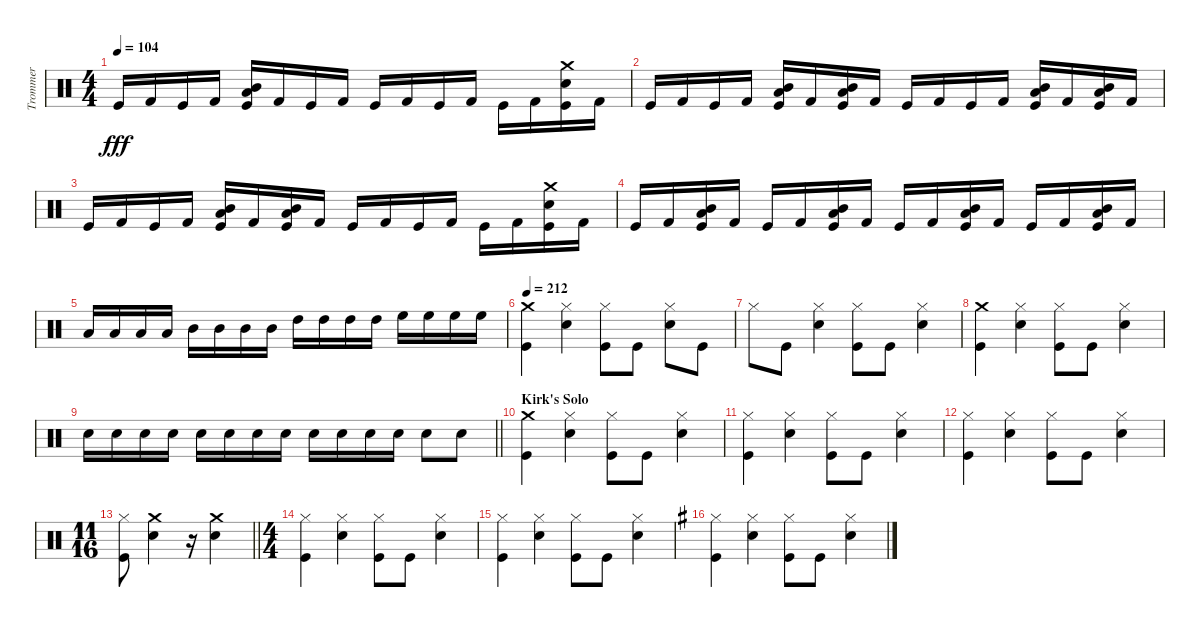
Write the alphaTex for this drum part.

\track ("Trommer" "Trommer") {instrument percussion}
\staff {score}
\articulation defaults
\ts (4 4)
\tempo 104
\clef neutral
\ks c "Kick (hit)".16{dy fff} "Kick (hit) 2".16 "Kick (hit)".16 "Kick (hit) 2".16
("Kick (hit)" "Mid Tom (hit)" "Low Tom (hit)").16 "Kick (hit) 2".16 "Kick (hit)".16 "Kick (hit) 2".16 "Kick (hit)".16 "Kick (hit) 2".16 "Kick (hit)".16 "Kick (hit) 2".16 "Kick (hit)".16 "Kick (hit) 2".16 ("Snare (hit) 2" "Kick (hit)" "Crash medium (hit)").16 "Kick (hit) 2".16 |
"Kick (hit)".16 "Kick (hit) 2".16 "Kick (hit)".16 "Kick (hit) 2".16 ("Mid Tom (hit)" "Low Tom (hit)" "Kick (hit)").16 "Kick (hit) 2".16 ("Kick (hit)" "Mid Tom (hit)" "Low Tom (hit)").16 "Kick (hit) 2".16 "Kick (hit)".16 "Kick (hit) 2".16 "Kick (hit)".16 "Kick (hit) 2".16 ("Kick (hit)" "Mid Tom (hit)" "Low Tom (hit)").16 "Kick (hit) 2".16 ("Low Tom (hit)" "Mid Tom (hit)" "Kick (hit)").16 "Kick (hit) 2".16 |
"Kick (hit)".16 "Kick (hit) 2".16 "Kick (hit)".16 "Kick (hit) 2".16 ("Kick (hit)" "Mid Tom (hit)" "Low Tom (hit)").16 "Kick (hit) 2".16 ("Kick (hit)" "Low Tom (hit)" "Mid Tom (hit)").16 "Kick (hit) 2".16 "Kick (hit)".16 "Kick (hit) 2".16 "Kick (hit)".16 "Kick (hit) 2".16 "Kick (hit)".16 "Kick (hit) 2".16 ("Kick (hit)" "Crash medium (hit)" "Snare (hit) 2").16 "Kick (hit) 2".16 |
"Kick (hit)".16 "Kick (hit) 2".16 ("Kick (hit)" "Mid Tom (hit)" "Low Tom (hit)").16 "Kick (hit) 2".16 "Kick (hit)".16 "Kick (hit) 2".16 ("Kick (hit)" "Low Tom (hit)" "Mid Tom (hit)").16 "Kick (hit) 2".16 "Kick (hit)".16 "Kick (hit) 2".16 ("Low Tom (hit)" "Mid Tom (hit)" "Kick (hit)").16 "Kick (hit) 2".16 "Kick (hit)".16 "Kick (hit) 2".16 ("Mid Tom (hit)" "Low Tom (hit)" "Kick (hit)").16 "Kick (hit) 2".16 |
"Low Tom (hit)".16 "Low Tom (hit)".16 "Low Tom (hit)".16 "Low Tom (hit)".16 "Mid Tom (hit)".16 "Mid Tom (hit)".16 "Mid Tom (hit)".16 "Mid Tom (hit)".16 "High Tom (hit)".16 "High Tom (hit)".16 "High Tom (hit)".16 "High Tom (hit)".16 "High Floor Tom (hit)".16 "High Floor Tom (hit)".16 "High Floor Tom (hit)".16 "High Floor Tom (hit)".16 |
\tempo 212
("Kick (hit)" "Crash medium (hit)").4 ("Snare (hit) 2" "Hi-Hat (closed)").4 ("Kick (hit)" "Hi-Hat (closed)").8 "Kick (hit)".8 ("Hi-Hat (closed)" "Snare (hit) 2").8 "Kick (hit)".8 |
"Hi-Hat (closed)".8 "Kick (hit)".8 ("Snare (hit) 2" "Hi-Hat (closed)").4 ("Hi-Hat (closed)" "Kick (hit)").8 "Kick (hit)".8 ("Snare (hit) 2" "Hi-Hat (closed)").4 |
("Crash medium (hit)" "Kick (hit)").4 ("Snare (hit) 2" "Hi-Hat (closed)").4 ("Kick (hit)" "Hi-Hat (closed)").8 "Kick (hit)".8 ("Snare (hit) 2" "Hi-Hat (closed)").4 |
\barLineRight lightlight "Snare (hit) 2".16 "Snare (hit) 2".16 "Snare (hit) 2".16 "Snare (hit) 2".16 "Snare (hit) 2".16 "Snare (hit) 2".16 "Snare (hit) 2".16 "Snare (hit) 2".16 "Snare (hit) 2".16 "Snare (hit) 2".16 "Snare (hit) 2".16 "Snare (hit) 2".16 "Snare (hit) 2".8 "Snare (hit) 2".8
|
\section ("" "Kirk's Solo")
("Kick (hit)" "Crash medium (hit)").4 ("Snare (hit) 2" "Hi-Hat (closed)").4 ("Hi-Hat (closed)" "Kick (hit)").8 "Kick (hit)".8 ("Snare (hit) 2" "Hi-Hat (closed)").4 |
("Hi-Hat (closed)" "Kick (hit)").4 ("Snare (hit) 2" "Hi-Hat (closed)").4 ("Kick (hit)" "Hi-Hat (closed)").8 "Kick (hit)".8 ("Snare (hit) 2" "Hi-Hat (closed)").4 |
("Kick (hit)" "Hi-Hat (closed)").4 ("Snare (hit) 2" "Hi-Hat (closed)").4 ("Kick (hit)" "Hi-Hat (closed)").8 "Kick (hit)".8 ("Snare (hit) 2" "Hi-Hat (closed)").4 |
\ts (11 16)
\barLineRight lightlight
("Hi-Hat (closed)" "Kick (hit)").8 ("Snare (hit) 2" "Crash medium (hit)").4 r.16 ("Crash medium (hit)" "Snare (hit) 2").4 |
\ts (4 4)
("Hi-Hat (closed)" "Kick (hit)").4 ("Snare (hit) 2" "Hi-Hat (closed)").4 ("Kick (hit)" "Hi-Hat (closed)").8 "Kick (hit)".8 ("Snare (hit) 2" "Hi-Hat (closed)").4 |
("Kick (hit)" "Hi-Hat (closed)").4 ("Snare (hit) 2" "Hi-Hat (closed)").4 ("Hi-Hat (closed)" "Kick (hit)").8 "Kick (hit)".8 ("Snare (hit) 2" "Hi-Hat (closed)").4 |
\ks g
("Hi-Hat (closed)" "Kick (hit)").4 ("Snare (hit) 2" "Hi-Hat (closed)").4 ("Kick (hit)" "Hi-Hat (closed)").8 "Kick (hit)".8 ("Hi-Hat (closed)" "Snare (hit) 2").4
